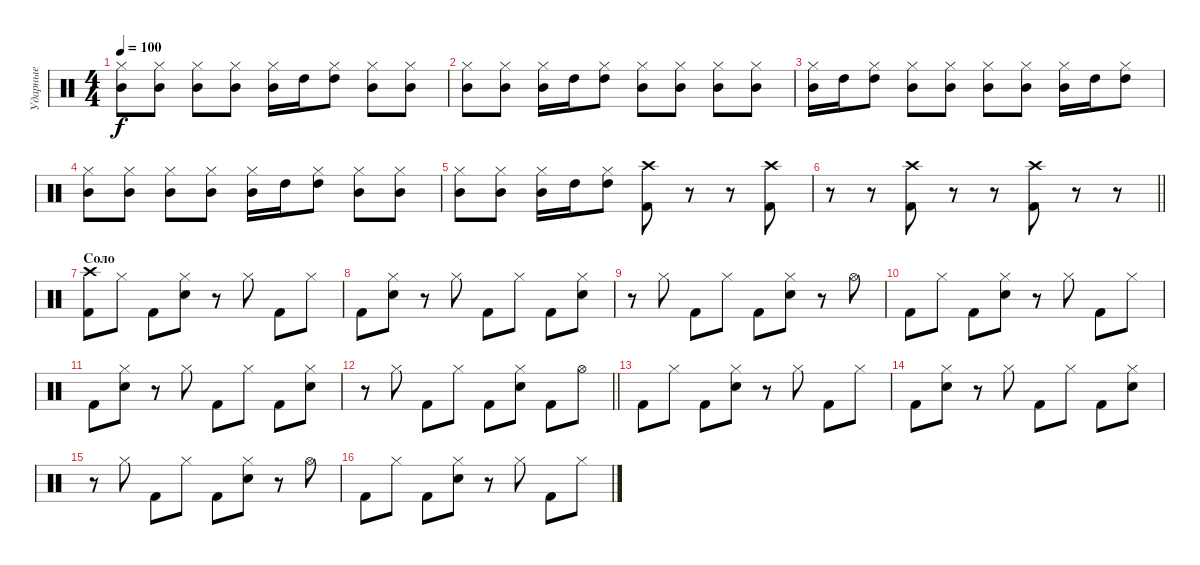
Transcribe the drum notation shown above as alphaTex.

\track ("Ударные" "Ударные") {instrument percussion}
\staff {score}
\articulation defaults
\ts (4 4)
\tempo 100
\clef neutral
\ks c
("Mid Tom (hit)" "Hi-Hat (closed)").8{dy f} ("Mid Tom (hit)" "Hi-Hat (closed)").8 ("Mid Tom (hit)" "Hi-Hat (closed)").8 ("Mid Tom (hit)" "Hi-Hat (closed)").8 ("Mid Tom (hit)" "Hi-Hat (closed)").16 "High Tom (hit)".16 ("High Tom (hit)" "Hi-Hat (closed)").8 ("Mid Tom (hit)" "Hi-Hat (closed)").8 ("Mid Tom (hit)" "Hi-Hat (closed)").8 |
("Mid Tom (hit)" "Hi-Hat (closed)").8 ("Mid Tom (hit)" "Hi-Hat (closed)").8 ("Mid Tom (hit)" "Hi-Hat (closed)").16 "High Tom (hit)".16 ("High Tom (hit)" "Hi-Hat (closed)").8 ("Mid Tom (hit)" "Hi-Hat (closed)").8 ("Mid Tom (hit)" "Hi-Hat (closed)").8 ("Mid Tom (hit)" "Hi-Hat (closed)").8 ("Mid Tom (hit)" "Hi-Hat (closed)").8 |
("Mid Tom (hit)" "Hi-Hat (closed)").16 "High Tom (hit)".16 ("High Tom (hit)" "Hi-Hat (closed)").8 ("Mid Tom (hit)" "Hi-Hat (closed)").8 ("Mid Tom (hit)" "Hi-Hat (closed)").8 ("Mid Tom (hit)" "Hi-Hat (closed)").8 ("Mid Tom (hit)" "Hi-Hat (closed)").8 ("Mid Tom (hit)" "Hi-Hat (closed)").16 "High Tom (hit)".16 ("High Tom (hit)" "Hi-Hat (closed)").8 |
("Mid Tom (hit)" "Hi-Hat (closed)").8 ("Mid Tom (hit)" "Hi-Hat (closed)").8 ("Mid Tom (hit)" "Hi-Hat (closed)").8 ("Mid Tom (hit)" "Hi-Hat (closed)").8 ("Mid Tom (hit)" "Hi-Hat (closed)").16 "High Tom (hit)".16 ("High Tom (hit)" "Hi-Hat (closed)").8 ("Mid Tom (hit)" "Hi-Hat (closed)").8 ("Mid Tom (hit)" "Hi-Hat (closed)").8 |
("Mid Tom (hit)" "Hi-Hat (closed)").8 ("Mid Tom (hit)" "Hi-Hat (closed)").8 ("Mid Tom (hit)" "Hi-Hat (closed)").16 "High Tom (hit)".16 ("High Tom (hit)" "Hi-Hat (closed)").8 ("Kick (hit) 2" "Crash high (hit)").8 r.8 r.8 ("Kick (hit) 2" "Crash high (hit)").8 |
\barLineRight lightlight
r.8 r.8 ("Kick (hit) 2" "Crash high (hit)").8 r.8 r.8 ("Kick (hit) 2" "Crash high (hit)").8 r.8 r.8 |
\section ("" "Соло")
("Kick (hit) 2" "Crash high (hit)").8 "Hi-Hat (closed)".8 "Kick (hit) 2".8 ("Snare (hit) 2" "Hi-Hat (closed)").8 r.8 "Hi-Hat (closed)".8 "Kick (hit) 2".8 "Hi-Hat (closed)".8 |
"Kick (hit) 2".8 ("Snare (hit) 2" "Hi-Hat (closed)").8 r.8 "Hi-Hat (closed)".8 "Kick (hit) 2".8 "Hi-Hat (closed)".8 "Kick (hit) 2".8 ("Snare (hit) 2" "Hi-Hat (closed)").8 |
r.8 "Hi-Hat (closed)".8 "Kick (hit) 2".8 "Hi-Hat (closed)".8 "Kick (hit) 2".8 ("Snare (hit) 2" "Hi-Hat (closed)").8 r.8 "Hi-Hat (open)".8 |
"Kick (hit) 2".8 "Hi-Hat (closed)".8 "Kick (hit) 2".8 ("Snare (hit) 2" "Hi-Hat (closed)").8 r.8 "Hi-Hat (closed)".8 "Kick (hit) 2".8 "Hi-Hat (closed)".8 |
"Kick (hit) 2".8 ("Snare (hit) 2" "Hi-Hat (closed)").8 r.8 "Hi-Hat (closed)".8 "Kick (hit) 2".8 "Hi-Hat (closed)".8 "Kick (hit) 2".8 ("Snare (hit) 2" "Hi-Hat (closed)").8 |
\barLineRight lightlight
r.8 "Hi-Hat (closed)".8 "Kick (hit) 2".8 "Hi-Hat (closed)".8 "Kick (hit) 2".8 ("Snare (hit) 2" "Hi-Hat (closed)").8 "Kick (hit) 2".8 "Hi-Hat (open)".8 |
"Kick (hit) 2".8 "Hi-Hat (closed)".8 "Kick (hit) 2".8 ("Snare (hit) 2" "Hi-Hat (closed)").8 r.8 "Hi-Hat (closed)".8 "Kick (hit) 2".8 "Hi-Hat (closed)".8 |
"Kick (hit) 2".8 ("Snare (hit) 2" "Hi-Hat (closed)").8 r.8 "Hi-Hat (closed)".8 "Kick (hit) 2".8 "Hi-Hat (closed)".8 "Kick (hit) 2".8 ("Snare (hit) 2" "Hi-Hat (closed)").8 |
r.8 "Hi-Hat (closed)".8 "Kick (hit) 2".8 "Hi-Hat (closed)".8 "Kick (hit) 2".8 ("Snare (hit) 2" "Hi-Hat (closed)").8 r.8 "Hi-Hat (open)".8 |
"Kick (hit) 2".8 "Hi-Hat (closed)".8 "Kick (hit) 2".8 ("Snare (hit) 2" "Hi-Hat (closed)").8 r.8 "Hi-Hat (closed)".8 "Kick (hit) 2".8 "Hi-Hat (closed)".8
